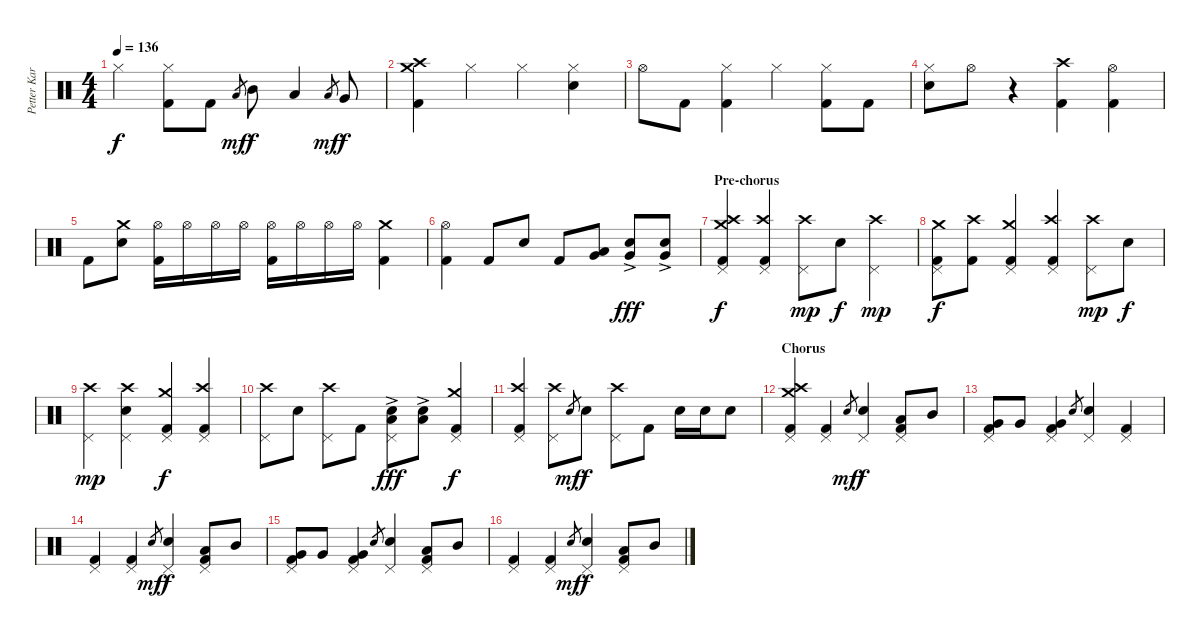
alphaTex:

\track ("Petter Karlsson" "Petter Kar") {instrument percussion}
\staff {score}
\articulation defaults
\ts (4 4)
\tempo 136
\clef neutral
\ks c "Hi-Hat (closed)".4{dy f}
("Hi-Hat (closed)" "Kick (hit) 2").8 "Kick (hit) 2".8 "Low Tom (hit)".8{gr dy mf} "Mid Tom (hit)".8{dy f} "Low Tom (hit)".4 "Low Tom (hit)".8{gr dy mf} "Very Low Tom (hit)".8{dy f} |
("Crash high (hit)" "Crash medium (hit)" "Kick (hit) 2").4 "Hi-Hat (closed)".4 "Hi-Hat (closed)".4 ("Hi-Hat (closed)" "Snare (hit) 2").4 |
"Hi-Hat (open)".8 "Kick (hit) 2".8 ("Hi-Hat (closed)" "Kick (hit) 2").4 "Hi-Hat (closed)".4 ("Hi-Hat (closed)" "Kick (hit) 2").8 "Kick (hit) 2".8 |
("Hi-Hat (closed)" "Snare (hit) 2").8 "Hi-Hat (open)".8 r.4 ("Crash high (hit)" "Kick (hit) 2").4 ("Hi-Hat (open)" "Kick (hit) 2").4 |
"Kick (hit) 2".8 ("Crash medium (hit)" "Snare (hit) 2").8 ("Hi-Hat (open)" "Kick (hit) 2").16 "Hi-Hat (open)".16 "Hi-Hat (open)".16 "Hi-Hat (open)".16 ("Hi-Hat (open)" "Kick (hit) 2").16 "Hi-Hat (open)".16 "Hi-Hat (open)".16 "Hi-Hat (open)".16 ("Crash medium (hit)" "Kick (hit) 2").4 |
("Hi-Hat (open)" "Kick (hit) 2").4 "Kick (hit) 2".8 "Snare (hit) 2".8 "Kick (hit) 2".8 ("Low Tom (hit)" "Very Low Tom (hit)").8 ("Snare (hit) 2" "Very Low Tom (hit)"{ac}).8{dy fff} ("Snare (hit) 2" "Very Low Tom (hit)"{ac}).8 |
\section ("" "Pre-chorus")
("Crash high (hit)" "Crash medium (hit)" "Pedal Hi-Hat (hit)" "Kick (hit) 2").4{dy f} ("Crash high (hit)" "Pedal Hi-Hat (hit)" "Kick (hit) 2").4 ("Pedal Hi-Hat (hit)" "Crash high (hit)").8{dy mp} "Snare (hit) 2".8{dy f} ("Pedal Hi-Hat (hit)" "Crash high (hit)").4{dy mp} |
("Crash medium (hit)" "Pedal Hi-Hat (hit)" "Kick (hit) 2").8{dy f} ("Crash high (hit)" "Kick (hit) 2").8 ("Crash medium (hit)" "Pedal Hi-Hat (hit)" "Kick (hit) 2").4 ("Crash high (hit)" "Pedal Hi-Hat (hit)" "Kick (hit) 2").4 ("Pedal Hi-Hat (hit)" "Crash high (hit)").8{dy mp} "Snare (hit) 2".8{dy f} |
("Pedal Hi-Hat (hit)" "Crash high (hit)").4{dy mp} ("Pedal Hi-Hat (hit)" "Crash high (hit)" "Snare (hit) 2").4 ("Crash medium (hit)" "Pedal Hi-Hat (hit)" "Kick (hit) 2").4{dy f} ("Crash high (hit)" "Pedal Hi-Hat (hit)" "Kick (hit) 2").4 |
("Crash high (hit)" "Pedal Hi-Hat (hit)").8 "Snare (hit) 2".8 ("Crash high (hit)" "Pedal Hi-Hat (hit)").8 "Kick (hit) 2".8 ("Pedal Hi-Hat (hit)" "Snare (hit) 2" "Low Floor Tom (hit)"{ac}).8{dy fff} ("Snare (hit) 2" "Low Floor Tom (hit)"{ac}).8 ("Crash medium (hit)" "Pedal Hi-Hat (hit)" "Kick (hit) 2").4{dy f} |
("Crash high (hit)" "Pedal Hi-Hat (hit)" "Kick (hit) 2").4 ("Pedal Hi-Hat (hit)" "Crash high (hit)").8 "Snare (hit) 2".8{gr dy mf} "Snare (hit) 2".8{dy f} ("Pedal Hi-Hat (hit)" "Crash high (hit)").8 "Kick (hit) 2".8 "Snare (hit) 2".16 "Snare (hit) 2".16 "Snare (hit) 2".8 |
\section ("" "Chorus")
("Crash high (hit)" "Crash medium (hit)" "Pedal Hi-Hat (hit)" "Kick (hit) 2").4 ("Pedal Hi-Hat (hit)" "Kick (hit) 2").4 "Snare (hit) 2".8{gr dy mf} ("Snare (hit) 2" "Pedal Hi-Hat (hit)").4{dy f} ("Low Tom (hit)" "Pedal Hi-Hat (hit)" "Kick (hit) 2").8 "Mid Tom (hit)".8 |
("Very Low Tom (hit)" "Pedal Hi-Hat (hit)" "Kick (hit) 2").8 "Very Low Tom (hit)".8 ("Very Low Tom (hit)" "Pedal Hi-Hat (hit)" "Kick (hit) 2").4 "Snare (hit) 2".8{gr} ("Snare (hit) 2" "Pedal Hi-Hat (hit)").4 ("Pedal Hi-Hat (hit)" "Kick (hit) 2").4 |
("Pedal Hi-Hat (hit)" "Kick (hit) 2").4 ("Pedal Hi-Hat (hit)" "Kick (hit) 2").4 "Snare (hit) 2".8{gr dy mf} ("Snare (hit) 2" "Pedal Hi-Hat (hit)").4{dy f} ("Low Tom (hit)" "Pedal Hi-Hat (hit)" "Kick (hit) 2").8 "Mid Tom (hit)".8 |
("Very Low Tom (hit)" "Pedal Hi-Hat (hit)" "Kick (hit) 2").8 "Very Low Tom (hit)".8 ("Very Low Tom (hit)" "Pedal Hi-Hat (hit)" "Kick (hit) 2").4 "Snare (hit) 2".8{gr} ("Snare (hit) 2" "Pedal Hi-Hat (hit)").4 ("Low Tom (hit)" "Pedal Hi-Hat (hit)" "Kick (hit) 2").8 "Mid Tom (hit)".8 |
("Pedal Hi-Hat (hit)" "Kick (hit) 2").4 ("Pedal Hi-Hat (hit)" "Kick (hit) 2").4 "Snare (hit) 2".8{gr dy mf} ("Snare (hit) 2" "Pedal Hi-Hat (hit)").4{dy f} ("Low Tom (hit)" "Pedal Hi-Hat (hit)" "Kick (hit) 2").8 "Mid Tom (hit)".8
